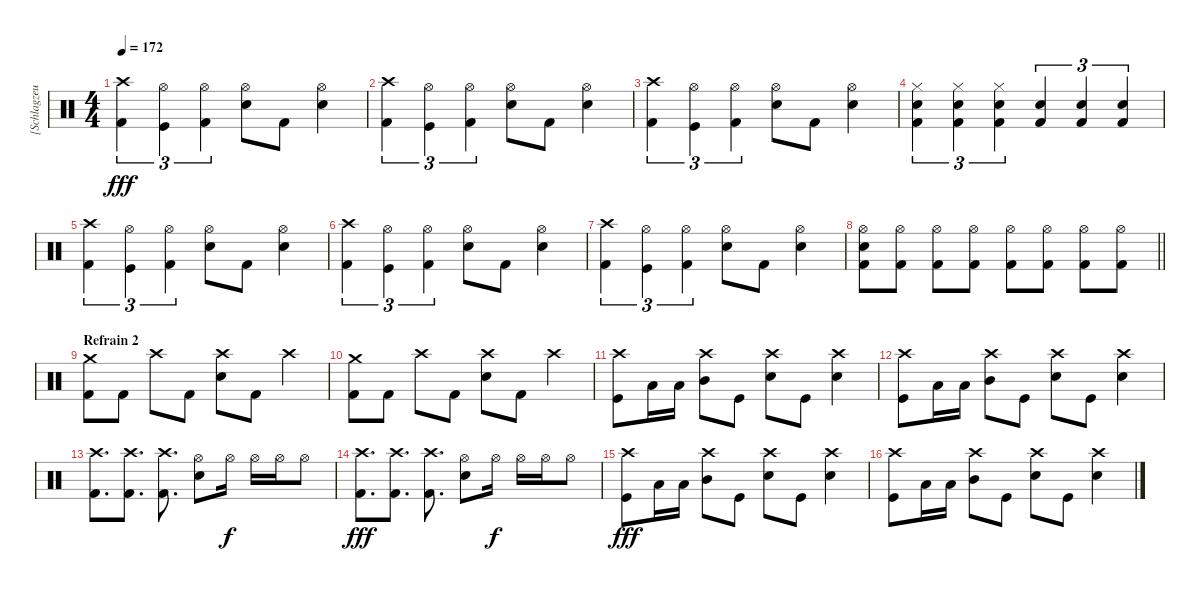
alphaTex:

\track ("[Schlagzeug]" "[Schlagzeu") {instrument percussion}
\staff {score}
\articulation defaults
\ts (4 4)
\tempo 172
\clef neutral
\ks c
("Crash high (hit)" "Kick (hit) 2").4{tu (3 2) dy fff} ("Hi-Hat (open)" "Kick (hit)").4{tu (3 2)} ("Hi-Hat (open)" "Kick (hit) 2").4{tu (3 2)} ("Hi-Hat (open)" "Electric Snare (hit)").8 "Kick (hit) 2".8 ("Hi-Hat (open)" "Electric Snare (hit)").4 |
("Crash high (hit)" "Kick (hit) 2").4{tu (3 2)} ("Hi-Hat (open)" "Kick (hit)").4{tu (3 2)} ("Hi-Hat (open)" "Kick (hit) 2").4{tu (3 2)} ("Hi-Hat (open)" "Electric Snare (hit)").8 "Kick (hit) 2".8 ("Hi-Hat (open)" "Electric Snare (hit)").4 |
("Crash high (hit)" "Kick (hit) 2").4{tu (3 2)} ("Hi-Hat (open)" "Kick (hit)").4{tu (3 2)} ("Hi-Hat (open)" "Kick (hit) 2").4{tu (3 2)} ("Hi-Hat (open)" "Electric Snare (hit)").8 "Kick (hit) 2".8 ("Hi-Hat (open)" "Electric Snare (hit)").4 |
("Hi-Hat (closed)" "Electric Snare (hit)" "Kick (hit) 2").4{tu (3 2)} ("Hi-Hat (closed)" "Electric Snare (hit)" "Kick (hit) 2").4{tu (3 2)} ("Hi-Hat (closed)" "Electric Snare (hit)" "Kick (hit) 2").4{tu (3 2)} ("Electric Snare (hit)" "Kick (hit) 2").4{tu (3 2)} ("Electric Snare (hit)" "Kick (hit) 2").4{tu (3 2)} ("Electric Snare (hit)" "Kick (hit) 2").4{tu (3 2)} |
("Crash high (hit)" "Kick (hit) 2").4{tu (3 2)} ("Hi-Hat (open)" "Kick (hit)").4{tu (3 2)} ("Hi-Hat (open)" "Kick (hit) 2").4{tu (3 2)} ("Hi-Hat (open)" "Electric Snare (hit)").8 "Kick (hit) 2".8 ("Hi-Hat (open)" "Electric Snare (hit)").4 |
("Crash high (hit)" "Kick (hit) 2").4{tu (3 2)} ("Hi-Hat (open)" "Kick (hit)").4{tu (3 2)} ("Hi-Hat (open)" "Kick (hit) 2").4{tu (3 2)} ("Hi-Hat (open)" "Electric Snare (hit)").8 "Kick (hit) 2".8 ("Hi-Hat (open)" "Electric Snare (hit)").4 |
("Crash high (hit)" "Kick (hit) 2").4{tu (3 2)} ("Hi-Hat (open)" "Kick (hit)").4{tu (3 2)} ("Hi-Hat (open)" "Kick (hit) 2").4{tu (3 2)} ("Hi-Hat (open)" "Electric Snare (hit)").8 "Kick (hit) 2".8 ("Hi-Hat (open)" "Electric Snare (hit)").4 |
\barLineRight lightlight
("Hi-Hat (open)" "Electric Snare (hit)" "Kick (hit) 2").8 ("Hi-Hat (open)" "Kick (hit) 2").8 ("Hi-Hat (open)" "Kick (hit) 2").8 ("Hi-Hat (open)" "Kick (hit) 2").8 ("Hi-Hat (open)" "Kick (hit) 2").8 ("Hi-Hat (open)" "Kick (hit) 2").8 ("Hi-Hat (open)" "Kick (hit) 2").8 ("Hi-Hat (open)" "Kick (hit) 2").8 |
\section ("" "Refrain 2")
("Crash medium (hit)" "Kick (hit) 2").8 "Kick (hit) 2".8 "Crash high (hit)".8 "Kick (hit) 2".8 ("Crash high (hit)" "Electric Snare (hit)").8 "Kick (hit) 2".8 "Crash high (hit)".4 |
("Crash medium (hit)" "Kick (hit) 2").8 "Kick (hit) 2".8 "Crash high (hit)".8 "Kick (hit) 2".8 ("Crash high (hit)" "Electric Snare (hit)").8 "Kick (hit) 2".8 "Crash high (hit)".4 |
("Kick (hit)" "Crash high (hit)").8 "Low Floor Tom (hit)".16 "Low Floor Tom (hit)".16 ("Mid Tom (hit)" "Crash high (hit)").8 "Kick (hit)".8 ("Electric Snare (hit)" "Crash high (hit)").8 "Kick (hit)".8 ("Electric Snare (hit)" "Crash high (hit)").4 |
("Kick (hit)" "Crash high (hit)").8 "Low Floor Tom (hit)".16 "Low Floor Tom (hit)".16 ("Mid Tom (hit)" "Crash high (hit)").8 "Kick (hit)".8 ("Electric Snare (hit)" "Crash high (hit)").8 "Kick (hit)".8 ("Electric Snare (hit)" "Crash high (hit)").4 |
("Crash high (hit)" "Kick (hit) 2").8{d} ("Crash high (hit)" "Kick (hit) 2").8{d} ("Crash high (hit)" "Kick (hit) 2").8{d} ("Hi-Hat (open)" "Electric Snare (hit)").8 "Hi-Hat (open)".16{dy f} "Hi-Hat (open)".16 "Hi-Hat (open)".16 "Hi-Hat (open)".8 |
("Crash high (hit)" "Kick (hit) 2").8{d dy fff} ("Crash high (hit)" "Kick (hit) 2").8{d} ("Crash high (hit)" "Kick (hit) 2").8{d} ("Hi-Hat (open)" "Electric Snare (hit)").8 "Hi-Hat (open)".16{dy f} "Hi-Hat (open)".16 "Hi-Hat (open)".16 "Hi-Hat (open)".8 |
("Kick (hit)" "Crash high (hit)").8{dy fff} "Low Floor Tom (hit)".16 "Low Floor Tom (hit)".16 ("Mid Tom (hit)" "Crash high (hit)").8 "Kick (hit)".8 ("Electric Snare (hit)" "Crash high (hit)").8 "Kick (hit)".8 ("Electric Snare (hit)" "Crash high (hit)").4 |
("Kick (hit)" "Crash high (hit)").8 "Low Floor Tom (hit)".16 "Low Floor Tom (hit)".16 ("Mid Tom (hit)" "Crash high (hit)").8 "Kick (hit)".8 ("Electric Snare (hit)" "Crash high (hit)").8 "Kick (hit)".8 ("Electric Snare (hit)" "Crash high (hit)").4
